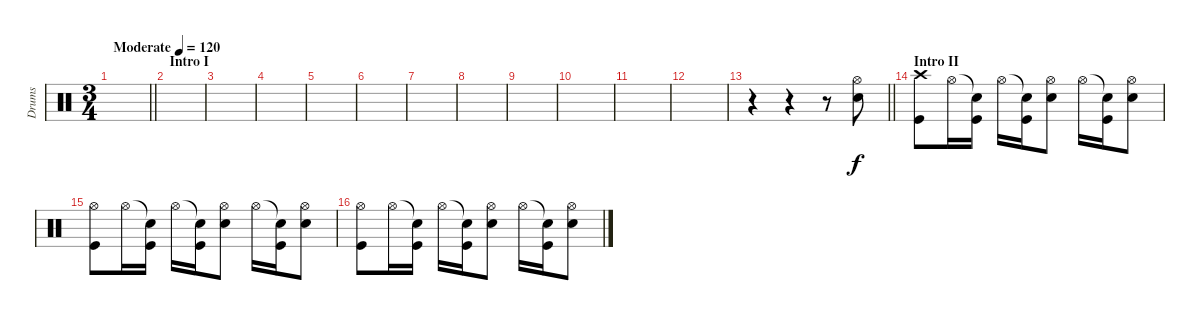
\track ("Drums" "Drums") {instrument percussion}
\staff {score}
\articulation defaults
\ts (3 4)
\tempo (120 "Moderate")
\clef neutral
\barLineRight lightlight
\ks c
|
\section ("" "Intro I")
|
|
|
|
|
|
|
|
|
|
|
\barLineRight lightlight
r.4 r.4 r.8 ("Hi-Hat (open)" "Snare (hit) 2").8 |
\section ("" "Intro II")
("Crash high (hit)" "Kick (hit)").8 "Hi-Hat (open)".16 ("Snare (hit)"{t} "Kick (hit)").16 "Hi-Hat (open)".16 ("Snare (hit)"{t} "Kick (hit)").16 ("Hi-Hat (open)" "Snare (hit) 2").8 "Hi-Hat (open)".16 ("Snare (hit)"{t} "Kick (hit)").16 ("Hi-Hat (open)" "Snare (hit) 2").8 |
("Hi-Hat (open)" "Kick (hit)").8 "Hi-Hat (open)".16 ("Snare (hit)"{t} "Kick (hit)").16 "Hi-Hat (open)".16 ("Snare (hit)"{t} "Kick (hit)").16 ("Hi-Hat (open)" "Snare (hit) 2").8 "Hi-Hat (open)".16 ("Snare (hit)"{t} "Kick (hit)").16 ("Hi-Hat (open)" "Snare (hit) 2").8 |
("Hi-Hat (open)" "Kick (hit)").8 "Hi-Hat (open)".16 ("Snare (hit)"{t} "Kick (hit)").16 "Hi-Hat (open)".16 ("Snare (hit)"{t} "Kick (hit)").16 ("Hi-Hat (open)" "Snare (hit) 2").8 "Hi-Hat (open)".16 ("Snare (hit)"{t} "Kick (hit)").16 ("Hi-Hat (open)" "Snare (hit) 2").8
